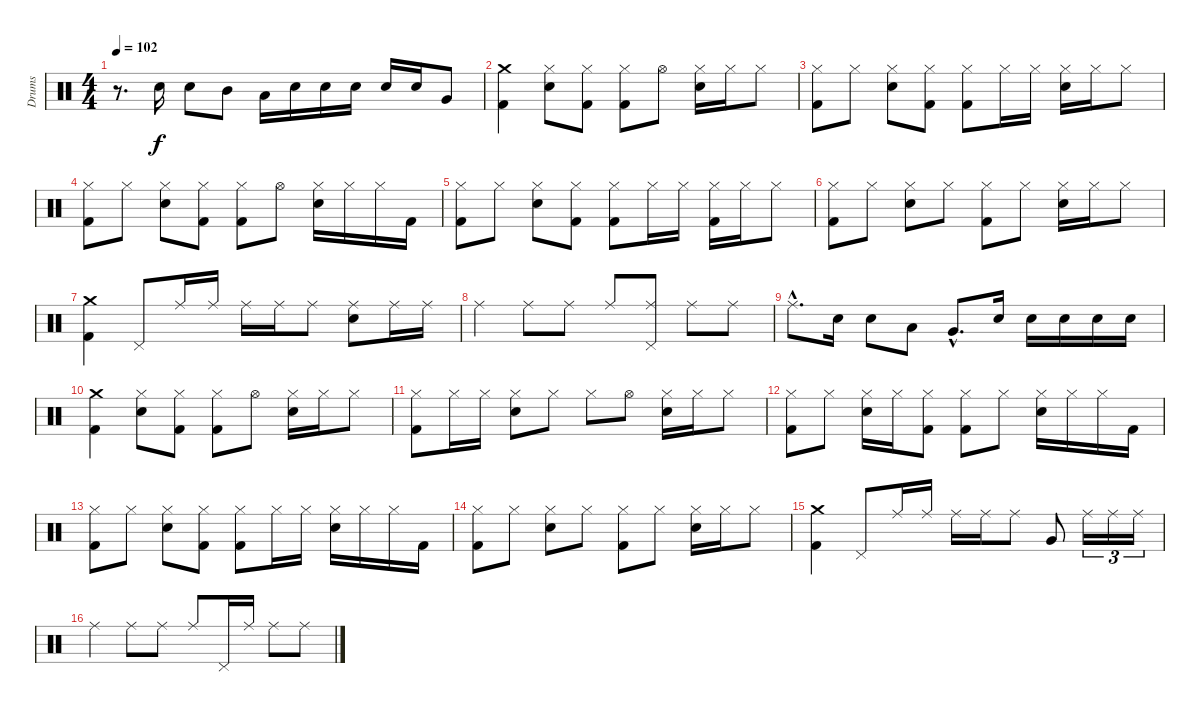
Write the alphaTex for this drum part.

\track ("Drums" "Drums") {instrument percussion}
\staff {score}
\articulation defaults
\ts (4 4)
\tempo 102
\clef neutral
\ks c
r.8{d dy f} "Snare (hit) 2".16 "Snare (hit) 2".8 "Mid Tom (hit)".8 "Low Tom (hit)".16 "Snare (hit) 2".16 "Snare (hit) 2".16 "Snare (hit) 2".16 "Snare (hit) 2".16 "Snare (hit) 2".16 "Very Low Tom (hit)".8 |
("Crash medium (hit)" "Kick (hit) 2").4 ("Hi-Hat (closed)" "Snare (hit) 2").8 ("Hi-Hat (closed)" "Kick (hit) 2").8 ("Hi-Hat (closed)" "Kick (hit) 2").8 "Hi-Hat (open)".8 ("Hi-Hat (closed)" "Snare (hit) 2").16 "Hi-Hat (closed)".16 "Hi-Hat (closed)".8 |
("Hi-Hat (closed)" "Kick (hit) 2").8 "Hi-Hat (closed)".8 ("Hi-Hat (closed)" "Snare (hit) 2").8 ("Hi-Hat (closed)" "Kick (hit) 2").8 ("Hi-Hat (closed)" "Kick (hit) 2").8 "Hi-Hat (closed)".16 "Hi-Hat (closed)".16 ("Hi-Hat (closed)" "Snare (hit) 2").16 "Hi-Hat (closed)".16 "Hi-Hat (closed)".8 |
("Hi-Hat (closed)" "Kick (hit) 2").8 "Hi-Hat (closed)".8 ("Hi-Hat (closed)" "Snare (hit) 2").8 ("Hi-Hat (closed)" "Kick (hit) 2").8 ("Hi-Hat (closed)" "Kick (hit) 2").8 "Hi-Hat (open)".8 ("Hi-Hat (closed)" "Snare (hit) 2").16 "Hi-Hat (closed)".16 "Hi-Hat (closed)".16 "Kick (hit) 2".16 |
("Hi-Hat (closed)" "Kick (hit) 2").8 "Hi-Hat (closed)".8 ("Hi-Hat (closed)" "Snare (hit) 2").8 ("Hi-Hat (closed)" "Kick (hit) 2").8 ("Hi-Hat (closed)" "Kick (hit) 2").8 "Hi-Hat (closed)".16 "Hi-Hat (closed)".16 ("Hi-Hat (closed)" "Kick (hit) 2").16 "Hi-Hat (closed)".16 "Hi-Hat (closed)".8 |
("Hi-Hat (closed)" "Kick (hit) 2").8 "Hi-Hat (closed)".8 ("Hi-Hat (closed)" "Snare (hit) 2").8 "Hi-Hat (closed)".8 ("Hi-Hat (closed)" "Kick (hit) 2").8 "Hi-Hat (closed)".8 ("Hi-Hat (closed)" "Snare (hit) 2").16 "Hi-Hat (closed)".16 "Hi-Hat (closed)".8 |
("Crash medium (hit)" "Kick (hit) 2").4 "Pedal Hi-Hat (hit)".8 "Ride (middle)".16 "Ride (middle)".16 "Ride (middle)".16 "Ride (middle)".16 "Ride (middle)".8 ("Ride (middle)" "Snare (hit) 2").8 "Ride (middle)".16 "Ride (middle)".16 |
"Ride (middle)".4 "Ride (middle)".8 "Ride (middle)".8 "Ride (middle)".8 ("Ride (middle)" "Pedal Hi-Hat (hit)").8 "Ride (middle)".8 "Ride (middle)".8 |
"Ride (middle)"{hac}.8{d} "Snare (hit) 2".16 "Snare (hit) 2".8 "Low Tom (hit)".8 "Very Low Tom (hit)"{hac}.8{d} "Snare (hit) 2".16 "Snare (hit) 2".16 "Snare (hit) 2".16 "Snare (hit) 2".16 "Snare (hit) 2".16 |
("Crash medium (hit)" "Kick (hit) 2").4 ("Hi-Hat (closed)" "Snare (hit) 2").8 ("Hi-Hat (closed)" "Kick (hit) 2").8 ("Hi-Hat (closed)" "Kick (hit) 2").8 "Hi-Hat (open)".8 ("Hi-Hat (closed)" "Snare (hit) 2").16 "Hi-Hat (closed)".16 "Hi-Hat (closed)".8 |
("Hi-Hat (closed)" "Kick (hit) 2").8 "Hi-Hat (closed)".16 "Hi-Hat (closed)".16 ("Hi-Hat (closed)" "Snare (hit) 2").8 "Hi-Hat (closed)".8 "Hi-Hat (closed)".8 "Hi-Hat (open)".8 ("Hi-Hat (closed)" "Snare (hit) 2").16 "Hi-Hat (closed)".16 "Hi-Hat (closed)".8 |
("Hi-Hat (closed)" "Kick (hit) 2").8 "Hi-Hat (closed)".8 ("Hi-Hat (closed)" "Snare (hit) 2").16 "Hi-Hat (closed)".16 ("Hi-Hat (closed)" "Kick (hit) 2").8 ("Hi-Hat (closed)" "Kick (hit) 2").8 "Hi-Hat (closed)".8 ("Hi-Hat (closed)" "Snare (hit) 2").16 "Hi-Hat (closed)".16 "Hi-Hat (closed)".16 "Kick (hit) 2".16 |
("Hi-Hat (closed)" "Kick (hit) 2").8 "Hi-Hat (closed)".8 ("Hi-Hat (closed)" "Snare (hit) 2").8 ("Hi-Hat (closed)" "Kick (hit) 2").8 ("Hi-Hat (closed)" "Kick (hit) 2").8 "Hi-Hat (closed)".16 "Hi-Hat (closed)".16 ("Hi-Hat (closed)" "Snare (hit) 2").16 "Hi-Hat (closed)".16 "Hi-Hat (closed)".16 "Kick (hit) 2".16 |
("Hi-Hat (closed)" "Kick (hit) 2").8 "Hi-Hat (closed)".8 ("Hi-Hat (closed)" "Snare (hit) 2").8 "Hi-Hat (closed)".8 ("Hi-Hat (closed)" "Kick (hit) 2").8 "Hi-Hat (closed)".8 ("Hi-Hat (closed)" "Snare (hit) 2").16 "Hi-Hat (closed)".16 "Hi-Hat (closed)".8 |
("Crash medium (hit)" "Kick (hit) 2").4 "Pedal Hi-Hat (hit)".8 "Ride (middle)".16 "Ride (middle)".16 "Ride (middle)".16 "Ride (middle)".16 "Ride (middle)".8 "Very Low Tom (hit)".8 "Ride (middle)".16{tu (3 2)} "Ride (middle)".16{tu (3 2)} "Ride (middle)".16{tu (3 2)} |
"Ride (middle)".4 "Ride (middle)".8 "Ride (middle)".8 "Ride (middle)".8 "Pedal Hi-Hat (hit)".16 "Ride (middle)".16 "Ride (middle)".8 "Ride (middle)".8
